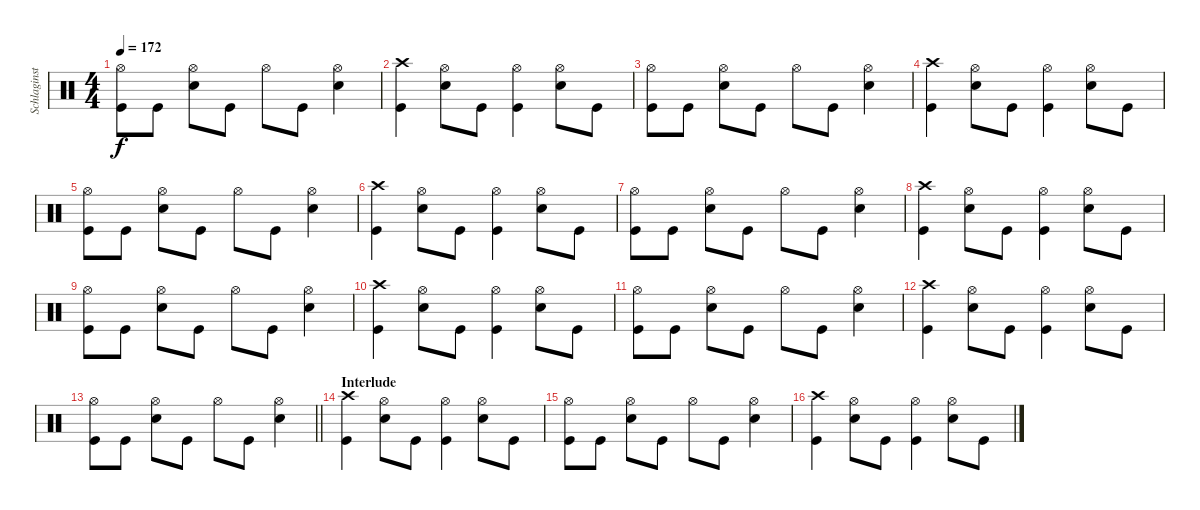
\track ("Schlaginstrumente - Auswahl" "Schlaginst") {instrument percussion}
\staff {score}
\articulation defaults
\ts (4 4)
\tempo 172
\clef neutral
\ks c
("Hi-Hat (open)" "Kick (hit)").8{dy f} "Kick (hit)".8 ("Hi-Hat (open)" "Snare (hit) 2").8 "Kick (hit)".8 "Hi-Hat (open)".8 "Kick (hit)".8 ("Hi-Hat (open)" "Snare (hit) 2").4 |
("Crash high (hit)" "Kick (hit)").4 ("Hi-Hat (open)" "Snare (hit) 2").8 "Kick (hit)".8 ("Hi-Hat (open)" "Kick (hit)").4 ("Hi-Hat (open)" "Snare (hit) 2").8 "Kick (hit)".8 |
("Hi-Hat (open)" "Kick (hit)").8 "Kick (hit)".8 ("Hi-Hat (open)" "Snare (hit) 2").8 "Kick (hit)".8 "Hi-Hat (open)".8 "Kick (hit)".8 ("Hi-Hat (open)" "Snare (hit) 2").4 |
("Crash high (hit)" "Kick (hit)").4 ("Hi-Hat (open)" "Snare (hit) 2").8 "Kick (hit)".8 ("Hi-Hat (open)" "Kick (hit)").4 ("Hi-Hat (open)" "Snare (hit) 2").8 "Kick (hit)".8 |
("Hi-Hat (open)" "Kick (hit)").8 "Kick (hit)".8 ("Hi-Hat (open)" "Snare (hit) 2").8 "Kick (hit)".8 "Hi-Hat (open)".8 "Kick (hit)".8 ("Hi-Hat (open)" "Snare (hit) 2").4 |
("Crash high (hit)" "Kick (hit)").4 ("Hi-Hat (open)" "Snare (hit) 2").8 "Kick (hit)".8 ("Hi-Hat (open)" "Kick (hit)").4 ("Hi-Hat (open)" "Snare (hit) 2").8 "Kick (hit)".8 |
("Hi-Hat (open)" "Kick (hit)").8 "Kick (hit)".8 ("Hi-Hat (open)" "Snare (hit) 2").8 "Kick (hit)".8 "Hi-Hat (open)".8 "Kick (hit)".8 ("Hi-Hat (open)" "Snare (hit) 2").4 |
("Crash high (hit)" "Kick (hit)").4 ("Hi-Hat (open)" "Snare (hit) 2").8 "Kick (hit)".8 ("Hi-Hat (open)" "Kick (hit)").4 ("Hi-Hat (open)" "Snare (hit) 2").8 "Kick (hit)".8 |
("Hi-Hat (open)" "Kick (hit)").8 "Kick (hit)".8 ("Hi-Hat (open)" "Snare (hit) 2").8 "Kick (hit)".8 "Hi-Hat (open)".8 "Kick (hit)".8 ("Hi-Hat (open)" "Snare (hit) 2").4 |
("Crash high (hit)" "Kick (hit)").4 ("Hi-Hat (open)" "Snare (hit) 2").8 "Kick (hit)".8 ("Hi-Hat (open)" "Kick (hit)").4 ("Hi-Hat (open)" "Snare (hit) 2").8 "Kick (hit)".8 |
("Hi-Hat (open)" "Kick (hit)").8 "Kick (hit)".8 ("Hi-Hat (open)" "Snare (hit) 2").8 "Kick (hit)".8 "Hi-Hat (open)".8 "Kick (hit)".8 ("Hi-Hat (open)" "Snare (hit) 2").4 |
("Crash high (hit)" "Kick (hit)").4 ("Hi-Hat (open)" "Snare (hit) 2").8 "Kick (hit)".8 ("Hi-Hat (open)" "Kick (hit)").4 ("Hi-Hat (open)" "Snare (hit) 2").8 "Kick (hit)".8 |
\barLineRight lightlight
("Hi-Hat (open)" "Kick (hit)").8 "Kick (hit)".8 ("Hi-Hat (open)" "Snare (hit) 2").8 "Kick (hit)".8 "Hi-Hat (open)".8 "Kick (hit)".8 ("Hi-Hat (open)" "Snare (hit) 2").4 |
\section ("" "Interlude")
("Crash high (hit)" "Kick (hit)").4 ("Hi-Hat (open)" "Snare (hit) 2").8 "Kick (hit)".8 ("Hi-Hat (open)" "Kick (hit)").4 ("Hi-Hat (open)" "Snare (hit) 2").8 "Kick (hit)".8 |
("Hi-Hat (open)" "Kick (hit)").8 "Kick (hit)".8 ("Hi-Hat (open)" "Snare (hit) 2").8 "Kick (hit)".8 "Hi-Hat (open)".8 "Kick (hit)".8 ("Hi-Hat (open)" "Snare (hit) 2").4 |
("Crash high (hit)" "Kick (hit)").4 ("Hi-Hat (open)" "Snare (hit) 2").8 "Kick (hit)".8 ("Hi-Hat (open)" "Kick (hit)").4 ("Hi-Hat (open)" "Snare (hit) 2").8 "Kick (hit)".8
